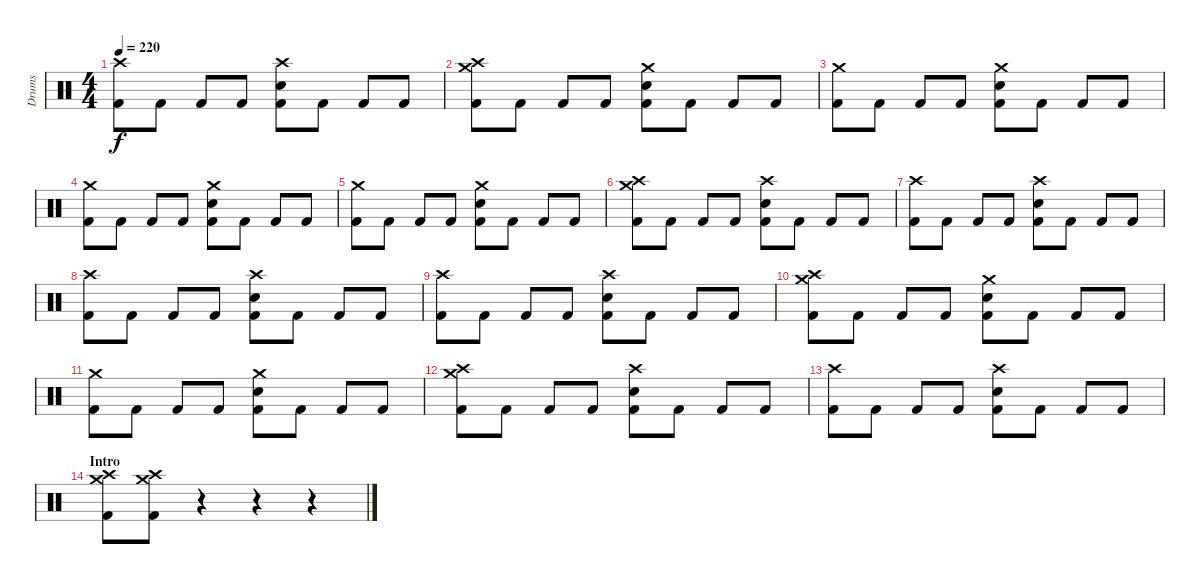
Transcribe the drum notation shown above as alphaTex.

\track ("Drums" "Drums") {instrument percussion}
\staff {score}
\articulation defaults
\ts (4 4)
\tempo 220
\clef neutral
\ks c
("Crash high (hit)" "Kick (hit) 2").8{dy f} "Kick (hit) 2".8 "Kick (hit) 2".8 "Kick (hit) 2".8 ("Crash high (hit)" "Electric Snare (hit)" "Kick (hit) 2").8 "Kick (hit) 2".8 "Kick (hit) 2".8 "Kick (hit) 2".8 |
("Crash high (hit)" "Crash medium (hit)" "Kick (hit) 2").8 "Kick (hit) 2".8 "Kick (hit) 2".8 "Kick (hit) 2".8 ("Crash medium (hit)" "Electric Snare (hit)" "Kick (hit) 2").8 "Kick (hit) 2".8 "Kick (hit) 2".8 "Kick (hit) 2".8 |
("Crash medium (hit)" "Kick (hit) 2").8 "Kick (hit) 2".8 "Kick (hit) 2".8 "Kick (hit) 2".8 ("Crash medium (hit)" "Electric Snare (hit)" "Kick (hit) 2").8 "Kick (hit) 2".8 "Kick (hit) 2".8 "Kick (hit) 2".8 |
("Crash medium (hit)" "Kick (hit) 2").8 "Kick (hit) 2".8 "Kick (hit) 2".8 "Kick (hit) 2".8 ("Crash medium (hit)" "Electric Snare (hit)" "Kick (hit) 2").8 "Kick (hit) 2".8 "Kick (hit) 2".8 "Kick (hit) 2".8 |
("Crash medium (hit)" "Kick (hit) 2").8 "Kick (hit) 2".8 "Kick (hit) 2".8 "Kick (hit) 2".8 ("Crash medium (hit)" "Electric Snare (hit)" "Kick (hit) 2").8 "Kick (hit) 2".8 "Kick (hit) 2".8 "Kick (hit) 2".8 |
("Crash high (hit)" "Crash medium (hit)" "Kick (hit) 2").8 "Kick (hit) 2".8 "Kick (hit) 2".8 "Kick (hit) 2".8 ("Crash high (hit)" "Electric Snare (hit)" "Kick (hit) 2").8 "Kick (hit) 2".8 "Kick (hit) 2".8 "Kick (hit) 2".8 |
("Crash high (hit)" "Kick (hit) 2").8 "Kick (hit) 2".8 "Kick (hit) 2".8 "Kick (hit) 2".8 ("Crash high (hit)" "Electric Snare (hit)" "Kick (hit) 2").8 "Kick (hit) 2".8 "Kick (hit) 2".8 "Kick (hit) 2".8 |
("Crash high (hit)" "Kick (hit) 2").8 "Kick (hit) 2".8 "Kick (hit) 2".8 "Kick (hit) 2".8 ("Crash high (hit)" "Electric Snare (hit)" "Kick (hit) 2").8 "Kick (hit) 2".8 "Kick (hit) 2".8 "Kick (hit) 2".8 |
("Crash high (hit)" "Kick (hit) 2").8 "Kick (hit) 2".8 "Kick (hit) 2".8 "Kick (hit) 2".8 ("Crash high (hit)" "Electric Snare (hit)" "Kick (hit) 2").8 "Kick (hit) 2".8 "Kick (hit) 2".8 "Kick (hit) 2".8 |
("Crash high (hit)" "Crash medium (hit)" "Kick (hit) 2").8 "Kick (hit) 2".8 "Kick (hit) 2".8 "Kick (hit) 2".8 ("Crash medium (hit)" "Electric Snare (hit)" "Kick (hit) 2").8 "Kick (hit) 2".8 "Kick (hit) 2".8 "Kick (hit) 2".8 |
("Crash medium (hit)" "Kick (hit) 2").8 "Kick (hit) 2".8 "Kick (hit) 2".8 "Kick (hit) 2".8 ("Crash medium (hit)" "Electric Snare (hit)" "Kick (hit) 2").8 "Kick (hit) 2".8 "Kick (hit) 2".8 "Kick (hit) 2".8 |
("Crash high (hit)" "Crash medium (hit)" "Kick (hit) 2").8 "Kick (hit) 2".8 "Kick (hit) 2".8 "Kick (hit) 2".8 ("Crash high (hit)" "Electric Snare (hit)" "Kick (hit) 2").8 "Kick (hit) 2".8 "Kick (hit) 2".8 "Kick (hit) 2".8 |
("Crash high (hit)" "Kick (hit) 2").8 "Kick (hit) 2".8 "Kick (hit) 2".8 "Kick (hit) 2".8 ("Crash high (hit)" "Electric Snare (hit)" "Kick (hit) 2").8 "Kick (hit) 2".8 "Kick (hit) 2".8 "Kick (hit) 2".8 |
\section ("" "Intro")
("Crash high (hit)" "Crash medium (hit)" "Kick (hit) 2").8 ("Crash high (hit)" "Crash medium (hit)" "Kick (hit) 2").8 r.4 r.4 r.4
